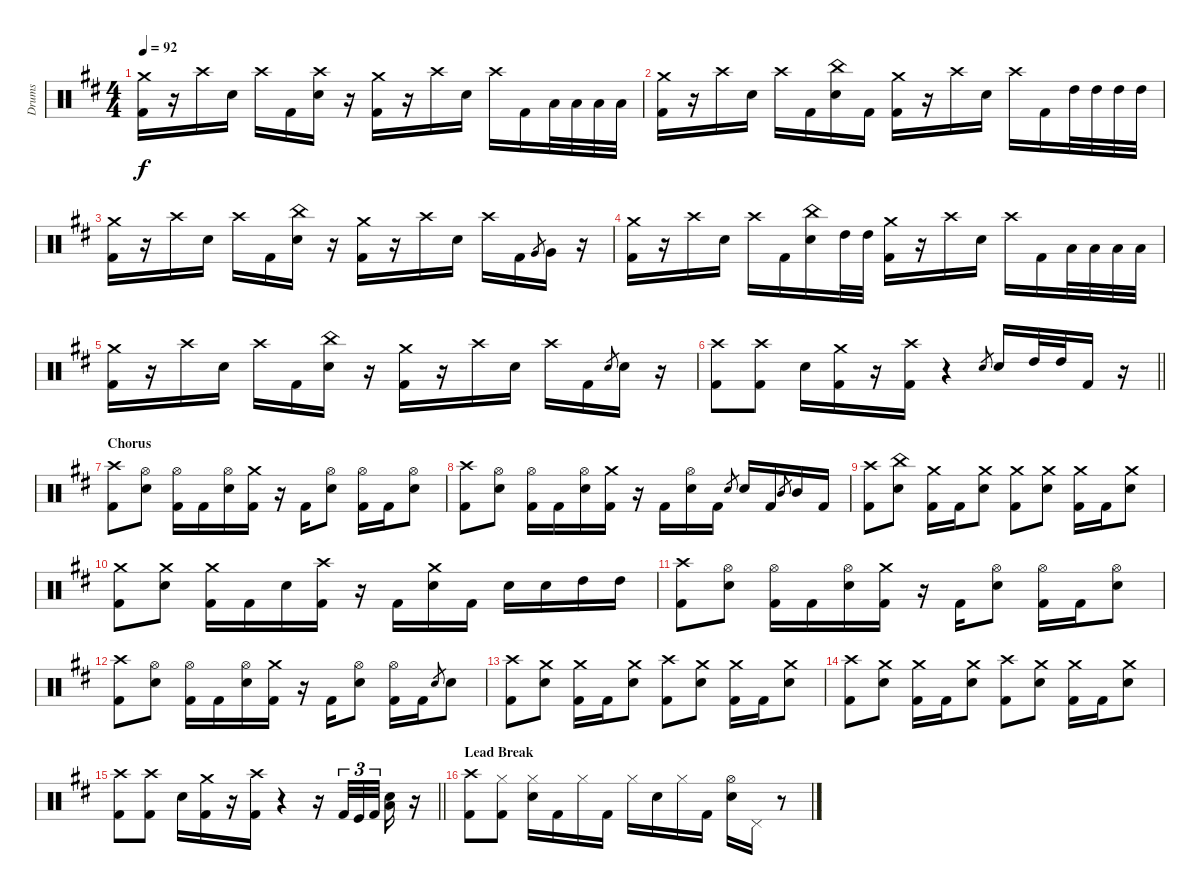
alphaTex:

\track ("Drums" "Drums") {instrument percussion}
\staff {score}
\articulation defaults
\ts (4 4)
\tempo 92
\clef neutral
\ks d
("Crash medium (hit)" "Kick (hit) 2").16{dy f} r.16 "Crash high (hit)".16 "Snare (hit) 2".16 "Crash high (hit)".16 "Kick (hit) 2".16 ("Crash high (hit)" "Snare (hit) 2").16 r.16 ("Crash medium (hit)" "Kick (hit) 2").16 r.16 "Crash high (hit)".16 "Snare (hit) 2".16 "Crash high (hit)".16 "Kick (hit) 2".16 "Low Tom (hit)".32 "Low Tom (hit)".32 "Low Tom (hit)".32 "Low Tom (hit)".32 |
("Crash medium (hit)" "Kick (hit) 2").16 r.16 "Crash high (hit)".16 "Snare (hit) 2".16 "Crash high (hit)".16 "Kick (hit) 2".16 ("China (hit)" "Snare (hit) 2").16 "Kick (hit) 2".16 ("Crash medium (hit)" "Kick (hit) 2").16 r.16 "Crash high (hit)".16 "Snare (hit) 2".16 "Crash high (hit)".16 "Kick (hit) 2".16 "High Tom (hit)".32 "High Tom (hit)".32 "High Tom (hit)".32 "High Tom (hit)".32 |
("Crash medium (hit)" "Kick (hit) 2").16 r.16 "Crash high (hit)".16 "Snare (hit) 2".16 "Crash high (hit)".16 "Kick (hit) 2".16 ("China (hit)" "Snare (hit) 2").16 r.16 ("Crash medium (hit)" "Kick (hit) 2").16 r.16 "Crash high (hit)".16 "Snare (hit) 2".16 "Crash high (hit)".16 "Kick (hit) 2".16 "Very Low Tom (hit)".8{gr} "Very Low Tom (hit)".16 r.16 |
("Crash medium (hit)" "Kick (hit) 2").16 r.16 "Crash high (hit)".16 "Snare (hit) 2".16 "Crash high (hit)".16 "Kick (hit) 2".16 ("China (hit)" "Snare (hit) 2").16 "High Tom (hit)".32 "High Tom (hit)".32 ("Crash medium (hit)" "Kick (hit) 2").16 r.16 "Crash high (hit)".16 "Snare (hit) 2".16 "Crash high (hit)".16 "Kick (hit) 2".16 "Low Tom (hit)".32 "Low Tom (hit)".32 "Low Tom (hit)".32 "Low Tom (hit)".32 |
("Crash medium (hit)" "Kick (hit) 2").16 r.16 "Crash high (hit)".16 "Snare (hit) 2".16 "Crash high (hit)".16 "Kick (hit) 2".16 ("China (hit)" "Snare (hit) 2").16 r.16 ("Crash medium (hit)" "Kick (hit) 2").16 r.16 "Crash high (hit)".16 "Snare (hit) 2".16 "Crash high (hit)".16 "Kick (hit) 2".16 "Snare (hit) 2".8{gr} "Snare (hit) 2".16 r.16 |
\barLineRight lightlight
("Crash high (hit)" "Kick (hit) 2").8 ("Crash high (hit)" "Kick (hit) 2").8 "Snare (hit) 2".16 ("Crash medium (hit)" "Kick (hit) 2").16 r.16 ("Crash high (hit)" "Kick (hit) 2").16 r.4 "Snare (hit) 2".8{gr} "Snare (hit) 2".16 "High Tom (hit)".32 "High Tom (hit)".32 "Kick (hit) 2".16 r.16 |
\section ("" "Chorus")
("Crash high (hit)" "Kick (hit) 2").8 ("Hi-Hat (open)" "Snare (hit) 2").8 ("Hi-Hat (open)" "Kick (hit) 2").16 "Kick (hit) 2".16 ("Hi-Hat (open)" "Snare (hit) 2").16 ("Crash medium (hit)" "Kick (hit) 2").16 r.16 "Kick (hit) 2".16 ("Hi-Hat (open)" "Snare (hit) 2").8 ("Hi-Hat (open)" "Kick (hit) 2").16 "Kick (hit) 2".16 ("Hi-Hat (open)" "Snare (hit) 2").8 |
("Crash high (hit)" "Kick (hit) 2").8 ("Hi-Hat (open)" "Snare (hit) 2").8 ("Hi-Hat (open)" "Kick (hit) 2").16 "Kick (hit) 2".16 ("Hi-Hat (open)" "Snare (hit) 2").16 ("Crash medium (hit)" "Kick (hit) 2").16 r.16 "Kick (hit) 2".16 ("Hi-Hat (open)" "Snare (hit) 2").16 "Kick (hit) 2".16 "Snare (hit) 2".8{gr} "Snare (hit) 2".16 "Kick (hit) 2".16 "Mid Tom (hit)".8{gr} "Mid Tom (hit)".16 "Kick (hit) 2".16 |
("Crash high (hit)" "Kick (hit) 2").8 ("China (hit)" "Snare (hit) 2").8 ("Crash medium (hit)" "Kick (hit) 2").16 "Kick (hit) 2".16 ("Crash medium (hit)" "Snare (hit) 2").8 ("Crash medium (hit)" "Kick (hit) 2").8 ("Crash medium (hit)" "Snare (hit) 2").8 ("Crash medium (hit)" "Kick (hit) 2").16 "Kick (hit) 2".16 ("Crash medium (hit)" "Snare (hit) 2").8 |
("Crash medium (hit)" "Kick (hit) 2").8 ("Crash medium (hit)" "Snare (hit) 2").8 ("Crash medium (hit)" "Kick (hit) 2").16 "Kick (hit) 2".16 "Snare (hit) 2".16 ("Crash high (hit)" "Kick (hit) 2").16 r.16 "Kick (hit) 2".16 ("Crash medium (hit)" "Snare (hit) 2").16 "Kick (hit) 2".16 "Snare (hit) 2".16 "Snare (hit) 2".16 "High Tom (hit)".16 "High Tom (hit)".16 |
("Crash high (hit)" "Kick (hit) 2").8 ("Hi-Hat (open)" "Snare (hit) 2").8 ("Hi-Hat (open)" "Kick (hit) 2").16 "Kick (hit) 2".16 ("Hi-Hat (open)" "Snare (hit) 2").16 ("Crash medium (hit)" "Kick (hit) 2").16 r.16 "Kick (hit) 2".16 ("Hi-Hat (open)" "Snare (hit) 2").8 ("Hi-Hat (open)" "Kick (hit) 2").16 "Kick (hit) 2".16 ("Hi-Hat (open)" "Snare (hit) 2").8 |
("Crash high (hit)" "Kick (hit) 2").8 ("Hi-Hat (open)" "Snare (hit) 2").8 ("Hi-Hat (open)" "Kick (hit) 2").16 "Kick (hit) 2".16 ("Hi-Hat (open)" "Snare (hit) 2").16 ("Crash medium (hit)" "Kick (hit) 2").16 r.16 "Kick (hit) 2".16 ("Hi-Hat (open)" "Snare (hit) 2").8 ("Hi-Hat (open)" "Kick (hit) 2").16 "Kick (hit) 2".16 "Snare (hit) 2".8{gr} "Snare (hit) 2".8 |
("Crash high (hit)" "Kick (hit) 2").8 ("Crash medium (hit)" "Snare (hit) 2").8 ("Crash medium (hit)" "Kick (hit) 2").16 "Kick (hit) 2".16 ("Crash medium (hit)" "Snare (hit) 2").8 ("Crash high (hit)" "Kick (hit) 2").8 ("Crash medium (hit)" "Snare (hit) 2").8 ("Crash medium (hit)" "Kick (hit) 2").16 "Kick (hit) 2".16 ("Crash medium (hit)" "Snare (hit) 2").8 |
("Crash high (hit)" "Kick (hit) 2").8 ("Crash medium (hit)" "Snare (hit) 2").8 ("Crash medium (hit)" "Kick (hit) 2").16 "Kick (hit) 2".16 ("Crash medium (hit)" "Snare (hit) 2").8 ("Crash high (hit)" "Kick (hit) 2").8 ("Crash medium (hit)" "Snare (hit) 2").8 ("Crash medium (hit)" "Kick (hit) 2").16 "Kick (hit) 2".16 ("Crash medium (hit)" "Snare (hit) 2").8 |
\barLineRight lightlight
("Crash high (hit)" "Kick (hit) 2").8 ("Crash high (hit)" "Kick (hit) 2").8 "Snare (hit) 2".16 ("Crash medium (hit)" "Kick (hit) 2").16 r.16 ("Crash high (hit)" "Kick (hit) 2").16 r.4 r.16 "Kick (hit) 2".32{tu (3 2)} "Kick (hit)".32{tu (3 2)} "Kick (hit) 2".32{tu (3 2) beam splitsecondary} ("Low Tom (hit)" "Snare (hit) 2").16 r.16 |
\section ("" "Lead Break")
("Crash high (hit)" "Kick (hit) 2").8 ("Hi-Hat (closed)" "Kick (hit) 2").8 ("Hi-Hat (closed)" "Snare (hit) 2").16 "Kick (hit) 2".16 "Hi-Hat (closed)".16 "Kick (hit) 2".16 "Hi-Hat (closed)".16 "Snare (hit) 2".16 "Hi-Hat (closed)".16 "Kick (hit) 2".16 ("Hi-Hat (open)" "Snare (hit) 2").16 "Pedal Hi-Hat (hit)".16 r.8
